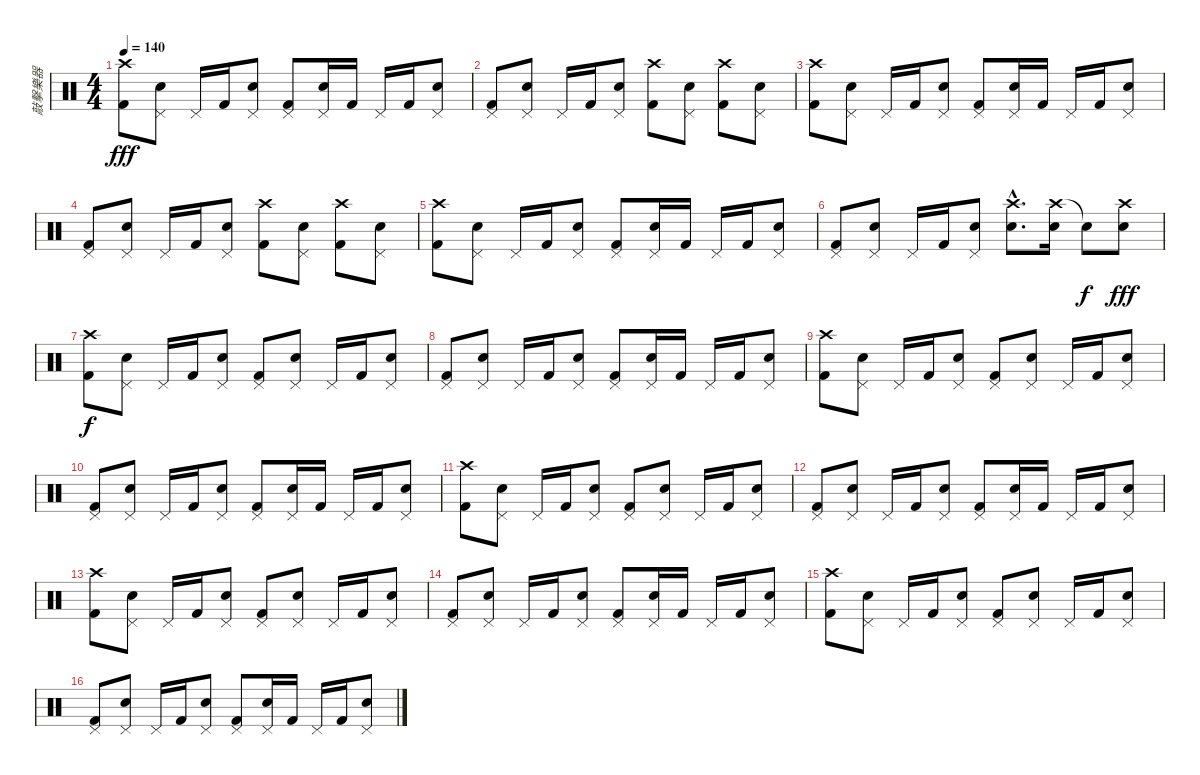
\track ("敲擊樂器" "敲擊樂器") {instrument percussion}
\staff {score}
\articulation defaults
\ts (4 4)
\tempo 140
\clef neutral
\ks c
("Crash high (hit)" "Kick (hit) 2").8{dy fff} ("Pedal Hi-Hat (hit)" "Snare (hit) 2").8 "Pedal Hi-Hat (hit)".16 "Kick (hit) 2".16 ("Pedal Hi-Hat (hit)" "Snare (hit) 2").8 ("Pedal Hi-Hat (hit)" "Kick (hit) 2").8 ("Pedal Hi-Hat (hit)" "Snare (hit) 2").16 "Kick (hit) 2".16 "Pedal Hi-Hat (hit)".16 "Kick (hit) 2".16 ("Pedal Hi-Hat (hit)" "Snare (hit) 2").8 |
("Pedal Hi-Hat (hit)" "Kick (hit) 2").8 ("Pedal Hi-Hat (hit)" "Snare (hit) 2").8 "Pedal Hi-Hat (hit)".16 "Kick (hit) 2".16 ("Pedal Hi-Hat (hit)" "Snare (hit) 2").8 ("Crash high (hit)" "Kick (hit) 2").8 ("Pedal Hi-Hat (hit)" "Snare (hit) 2").8 ("Crash high (hit)" "Kick (hit) 2").8 ("Pedal Hi-Hat (hit)" "Snare (hit) 2").8 |
("Crash high (hit)" "Kick (hit) 2").8 ("Pedal Hi-Hat (hit)" "Snare (hit) 2").8 "Pedal Hi-Hat (hit)".16 "Kick (hit) 2".16 ("Pedal Hi-Hat (hit)" "Snare (hit) 2").8 ("Pedal Hi-Hat (hit)" "Kick (hit) 2").8 ("Pedal Hi-Hat (hit)" "Snare (hit) 2").16 "Kick (hit) 2".16 "Pedal Hi-Hat (hit)".16 "Kick (hit) 2".16 ("Pedal Hi-Hat (hit)" "Snare (hit) 2").8 |
("Pedal Hi-Hat (hit)" "Kick (hit) 2").8 ("Pedal Hi-Hat (hit)" "Snare (hit) 2").8 "Pedal Hi-Hat (hit)".16 "Kick (hit) 2".16 ("Pedal Hi-Hat (hit)" "Snare (hit) 2").8 ("Crash high (hit)" "Kick (hit) 2").8 ("Pedal Hi-Hat (hit)" "Snare (hit) 2").8 ("Crash high (hit)" "Kick (hit) 2").8 ("Pedal Hi-Hat (hit)" "Snare (hit) 2").8 |
("Crash high (hit)" "Kick (hit) 2").8 ("Pedal Hi-Hat (hit)" "Snare (hit) 2").8 "Pedal Hi-Hat (hit)".16 "Kick (hit) 2".16 ("Pedal Hi-Hat (hit)" "Snare (hit) 2").8 ("Pedal Hi-Hat (hit)" "Kick (hit) 2").8 ("Pedal Hi-Hat (hit)" "Snare (hit) 2").16 "Kick (hit) 2".16 "Pedal Hi-Hat (hit)".16 "Kick (hit) 2".16 ("Pedal Hi-Hat (hit)" "Snare (hit) 2").8 |
("Pedal Hi-Hat (hit)" "Kick (hit) 2").8 ("Pedal Hi-Hat (hit)" "Snare (hit) 2").8 "Pedal Hi-Hat (hit)".16 "Kick (hit) 2".16 ("Pedal Hi-Hat (hit)" "Snare (hit) 2").8 ("Crash high (hit)"{hac} "Snare (hit) 2"{hac}).8{d} ("Crash high (hit)" "Snare (hit) 2").16 "Snare (hit)"{t}.8{dy f} ("Crash high (hit)" "Snare (hit) 2").8{dy fff} |
("Crash high (hit)" "Kick (hit) 2").8{dy f} ("Pedal Hi-Hat (hit)" "Snare (hit) 2").8 "Pedal Hi-Hat (hit)".16 "Kick (hit) 2".16 ("Pedal Hi-Hat (hit)" "Snare (hit) 2").8 ("Pedal Hi-Hat (hit)" "Kick (hit) 2").8 ("Pedal Hi-Hat (hit)" "Snare (hit) 2").8 "Pedal Hi-Hat (hit)".16 "Kick (hit) 2".16 ("Pedal Hi-Hat (hit)" "Snare (hit) 2").8 |
("Pedal Hi-Hat (hit)" "Kick (hit) 2").8 ("Pedal Hi-Hat (hit)" "Snare (hit) 2").8 "Pedal Hi-Hat (hit)".16 "Kick (hit) 2".16 ("Pedal Hi-Hat (hit)" "Snare (hit) 2").8 ("Pedal Hi-Hat (hit)" "Kick (hit) 2").8 ("Pedal Hi-Hat (hit)" "Snare (hit) 2").16 "Kick (hit) 2".16 "Pedal Hi-Hat (hit)".16 "Kick (hit) 2".16 ("Pedal Hi-Hat (hit)" "Snare (hit) 2").8 |
("Crash high (hit)" "Kick (hit) 2").8 ("Pedal Hi-Hat (hit)" "Snare (hit) 2").8 "Pedal Hi-Hat (hit)".16 "Kick (hit) 2".16 ("Pedal Hi-Hat (hit)" "Snare (hit) 2").8 ("Pedal Hi-Hat (hit)" "Kick (hit) 2").8 ("Pedal Hi-Hat (hit)" "Snare (hit) 2").8 "Pedal Hi-Hat (hit)".16 "Kick (hit) 2".16 ("Pedal Hi-Hat (hit)" "Snare (hit) 2").8 |
("Pedal Hi-Hat (hit)" "Kick (hit) 2").8 ("Pedal Hi-Hat (hit)" "Snare (hit) 2").8 "Pedal Hi-Hat (hit)".16 "Kick (hit) 2".16 ("Pedal Hi-Hat (hit)" "Snare (hit) 2").8 ("Pedal Hi-Hat (hit)" "Kick (hit) 2").8 ("Pedal Hi-Hat (hit)" "Snare (hit) 2").16 "Kick (hit) 2".16 "Pedal Hi-Hat (hit)".16 "Kick (hit) 2".16 ("Pedal Hi-Hat (hit)" "Snare (hit) 2").8 |
("Crash high (hit)" "Kick (hit) 2").8 ("Pedal Hi-Hat (hit)" "Snare (hit) 2").8 "Pedal Hi-Hat (hit)".16 "Kick (hit) 2".16 ("Pedal Hi-Hat (hit)" "Snare (hit) 2").8 ("Pedal Hi-Hat (hit)" "Kick (hit) 2").8 ("Pedal Hi-Hat (hit)" "Snare (hit) 2").8 "Pedal Hi-Hat (hit)".16 "Kick (hit) 2".16 ("Pedal Hi-Hat (hit)" "Snare (hit) 2").8 |
("Pedal Hi-Hat (hit)" "Kick (hit) 2").8 ("Pedal Hi-Hat (hit)" "Snare (hit) 2").8 "Pedal Hi-Hat (hit)".16 "Kick (hit) 2".16 ("Pedal Hi-Hat (hit)" "Snare (hit) 2").8 ("Pedal Hi-Hat (hit)" "Kick (hit) 2").8 ("Pedal Hi-Hat (hit)" "Snare (hit) 2").16 "Kick (hit) 2".16 "Pedal Hi-Hat (hit)".16 "Kick (hit) 2".16 ("Pedal Hi-Hat (hit)" "Snare (hit) 2").8 |
("Crash high (hit)" "Kick (hit) 2").8 ("Pedal Hi-Hat (hit)" "Snare (hit) 2").8 "Pedal Hi-Hat (hit)".16 "Kick (hit) 2".16 ("Pedal Hi-Hat (hit)" "Snare (hit) 2").8 ("Pedal Hi-Hat (hit)" "Kick (hit) 2").8 ("Pedal Hi-Hat (hit)" "Snare (hit) 2").8 "Pedal Hi-Hat (hit)".16 "Kick (hit) 2".16 ("Pedal Hi-Hat (hit)" "Snare (hit) 2").8 |
("Pedal Hi-Hat (hit)" "Kick (hit) 2").8 ("Pedal Hi-Hat (hit)" "Snare (hit) 2").8 "Pedal Hi-Hat (hit)".16 "Kick (hit) 2".16 ("Pedal Hi-Hat (hit)" "Snare (hit) 2").8 ("Pedal Hi-Hat (hit)" "Kick (hit) 2").8 ("Pedal Hi-Hat (hit)" "Snare (hit) 2").16 "Kick (hit) 2".16 "Pedal Hi-Hat (hit)".16 "Kick (hit) 2".16 ("Pedal Hi-Hat (hit)" "Snare (hit) 2").8 |
("Crash high (hit)" "Kick (hit) 2").8 ("Pedal Hi-Hat (hit)" "Snare (hit) 2").8 "Pedal Hi-Hat (hit)".16 "Kick (hit) 2".16 ("Pedal Hi-Hat (hit)" "Snare (hit) 2").8 ("Pedal Hi-Hat (hit)" "Kick (hit) 2").8 ("Pedal Hi-Hat (hit)" "Snare (hit) 2").8 "Pedal Hi-Hat (hit)".16 "Kick (hit) 2".16 ("Pedal Hi-Hat (hit)" "Snare (hit) 2").8 |
("Pedal Hi-Hat (hit)" "Kick (hit) 2").8 ("Pedal Hi-Hat (hit)" "Snare (hit) 2").8 "Pedal Hi-Hat (hit)".16 "Kick (hit) 2".16 ("Pedal Hi-Hat (hit)" "Snare (hit) 2").8 ("Pedal Hi-Hat (hit)" "Kick (hit) 2").8 ("Pedal Hi-Hat (hit)" "Snare (hit) 2").16 "Kick (hit) 2".16 "Pedal Hi-Hat (hit)".16 "Kick (hit) 2".16 ("Pedal Hi-Hat (hit)" "Snare (hit) 2").8
